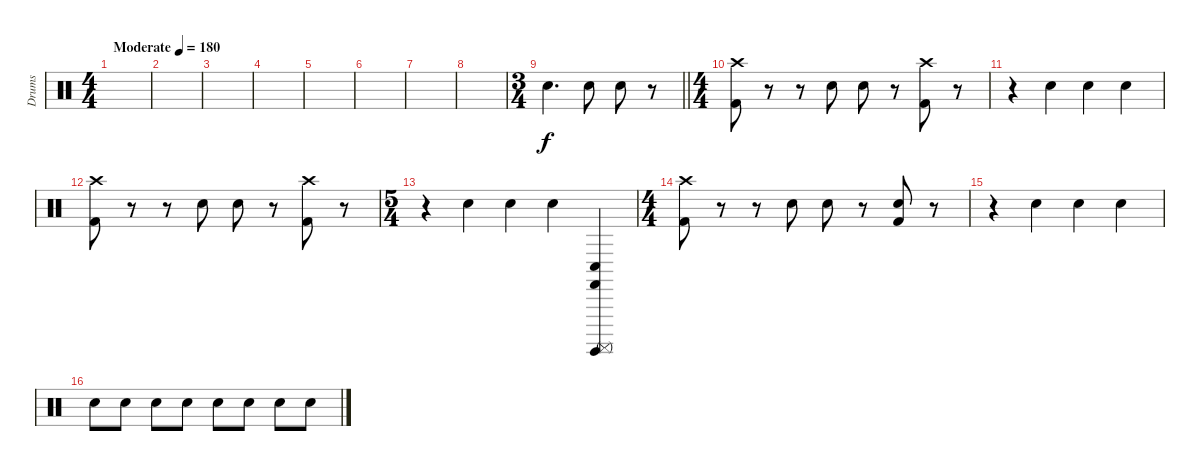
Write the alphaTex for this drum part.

\track ("Drums" "Drums") {instrument percussion}
\staff {score}
\articulation defaults
\ts (4 4)
\tempo (180 "Moderate")
\clef neutral
\ks c
|
|
|
|
|
|
|
|
\ts (3 4)
\barLineRight lightlight "Electric Snare (hit)".4{d} "Electric Snare (hit)".8 "Electric Snare (hit)".8
r.8 |
\ts (4 4)
("Kick (hit) 2" "Crash high (hit)").8 r.8 r.8 "Electric Snare (hit)".8 "Electric Snare (hit)".8 r.8 ("Kick (hit) 2" "Crash high (hit)").8 r.8 |
r.4 "Electric Snare (hit)".4 "Electric Snare (hit)".4 "Electric Snare (hit)".4 |
("Kick (hit) 2" "Crash high (hit)").8 r.8 r.8 "Electric Snare (hit)".8 "Electric Snare (hit)".8 r.8 ("Kick (hit) 2" "Crash high (hit)").8 r.8 |
\ts (5 4)
r.4 "Electric Snare (hit)".4 "Electric Snare (hit)".4 "Electric Snare (hit)".4 ("Surdo (mute)" "Castanets (hit)" "Surdo (hit)" "Conga low (hit)").4 |
\ts (4 4)
("Kick (hit) 2" "Crash high (hit)").8 r.8 r.8 "Electric Snare (hit)".8 "Electric Snare (hit)".8 r.8 ("Kick (hit) 2" "Electric Snare (hit)").8 r.8 |
r.4 "Electric Snare (hit)".4 "Electric Snare (hit)".4 "Electric Snare (hit)".4 |
"Electric Snare (hit)".8 "Electric Snare (hit)".8 "Electric Snare (hit)".8 "Electric Snare (hit)".8 "Electric Snare (hit)".8 "Electric Snare (hit)".8 "Electric Snare (hit)".8 "Electric Snare (hit)".8
